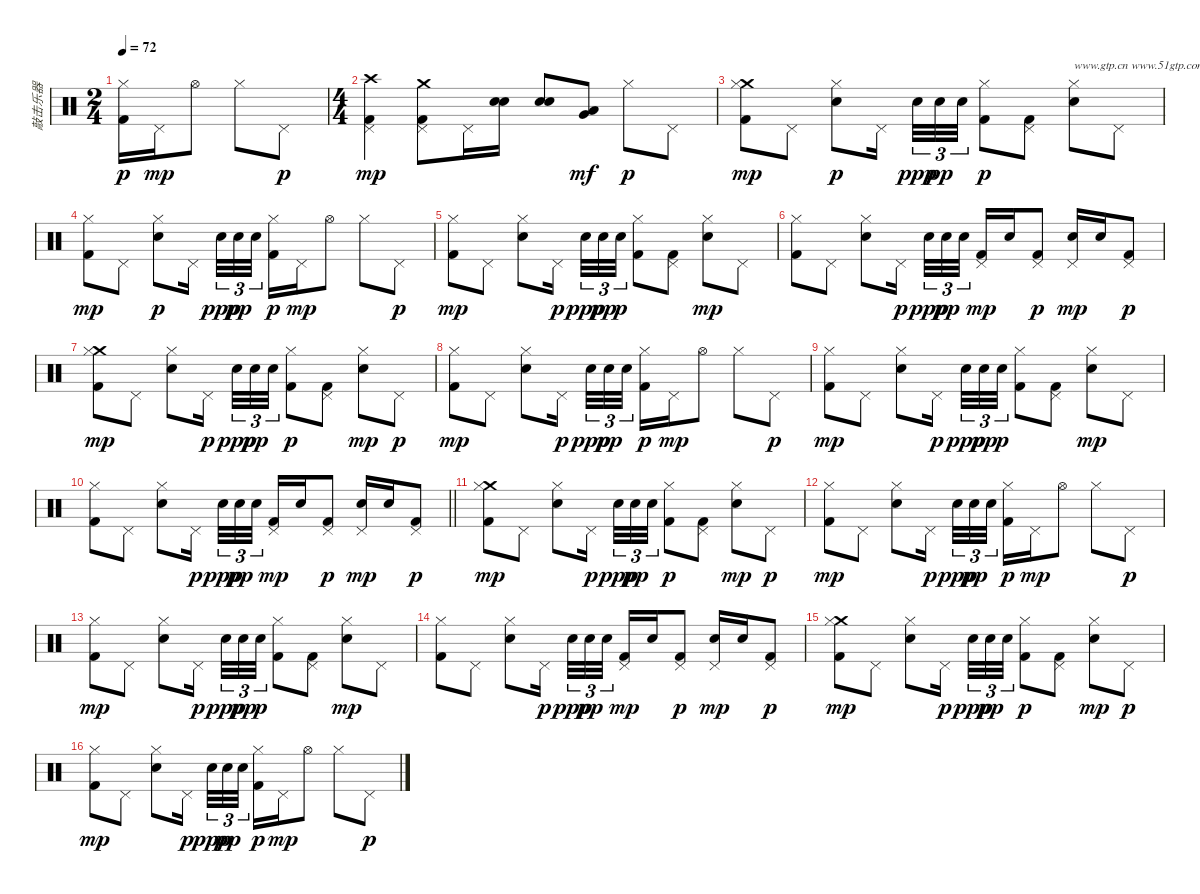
\track ("敲击乐器" "敲击乐器") {instrument percussion}
\staff {score}
\articulation defaults
\ts (2 4)
\tempo 72
\clef neutral
\ks c
("Hi-Hat (closed)" "Kick (hit) 2").16{dy p} "Pedal Hi-Hat (hit)".16{dy mp} "Hi-Hat (open)".8 "Hi-Hat (closed)".8 "Pedal Hi-Hat (hit)".8{dy p} |
\ts (4 4)
("Crash high (hit)" "Pedal Hi-Hat (hit)" "Kick (hit) 2").4{dy mp} ("Crash medium (hit)" "Pedal Hi-Hat (hit)" "Kick (hit) 2").8 "Pedal Hi-Hat (hit)".16 ("Electric Snare (hit)" "Electric Snare (hit)").16 ("Electric Snare (hit)" "Electric Snare (hit)").8 ("Low Tom (hit)" "Very Low Tom (hit)").8{dy mf} "Hi-Hat (closed)".8{dy p} "Pedal Hi-Hat (hit)".8 |
("Crash medium (hit)" "Hi-Hat (closed)" "Kick (hit) 2").8{dy mp} "Pedal Hi-Hat (hit)".8 ("Hi-Hat (closed)" "Electric Snare (hit)").8{dy p} "Pedal Hi-Hat (hit)".16{beam splitsecondary} "Electric Snare (hit)".32{tu (3 2) dy ppp} "Electric Snare (hit)".32{tu (3 2) dy pp} "Electric Snare (hit)".32{tu (3 2)} ("Hi-Hat (closed)" "Kick (hit) 2").8{dy p} ("Pedal Hi-Hat (hit)" "Kick (hit) 2").8 ("Hi-Hat (closed)" "Electric Snare (hit)").8{txt "www.gtp.cn www.51gtp.com联合为您提供优秀的GTP!"} "Pedal Hi-Hat (hit)".8 |
("Hi-Hat (closed)" "Kick (hit) 2").8{dy mp} "Pedal Hi-Hat (hit)".8 ("Hi-Hat (closed)" "Electric Snare (hit)").8{dy p} "Pedal Hi-Hat (hit)".16{beam splitsecondary} "Electric Snare (hit)".32{tu (3 2) dy ppp} "Electric Snare (hit)".32{tu (3 2) dy pp} "Electric Snare (hit)".32{tu (3 2)} ("Hi-Hat (closed)" "Kick (hit) 2").16{dy p} "Pedal Hi-Hat (hit)".16{dy mp} "Hi-Hat (open)".8 "Hi-Hat (closed)".8 "Pedal Hi-Hat (hit)".8{dy p} |
("Hi-Hat (closed)" "Kick (hit) 2").8{dy mp} "Pedal Hi-Hat (hit)".8 ("Hi-Hat (closed)" "Electric Snare (hit)").8 "Pedal Hi-Hat (hit)".16{dy p beam splitsecondary} "Electric Snare (hit)".32{tu (3 2) dy ppp} "Electric Snare (hit)".32{tu (3 2) dy pp} "Electric Snare (hit)".32{tu (3 2) dy p} ("Hi-Hat (closed)" "Kick (hit) 2").8 ("Pedal Hi-Hat (hit)" "Kick (hit) 2").8 ("Hi-Hat (closed)" "Electric Snare (hit)").8{dy mp} "Pedal Hi-Hat (hit)".8 |
("Hi-Hat (closed)" "Kick (hit) 2").8 "Pedal Hi-Hat (hit)".8 ("Hi-Hat (closed)" "Electric Snare (hit)").8 "Pedal Hi-Hat (hit)".16{dy p beam splitsecondary} "Electric Snare (hit)".32{tu (3 2) dy ppp} "Electric Snare (hit)".32{tu (3 2) dy pp} "Electric Snare (hit)".32{tu (3 2)} ("Pedal Hi-Hat (hit)" "Kick (hit) 2").16{dy mp} "Electric Snare (hit)".16 ("Pedal Hi-Hat (hit)" "Kick (hit) 2").8{dy p} ("Pedal Hi-Hat (hit)" "Electric Snare (hit)").16{dy mp} "Electric Snare (hit)".16 ("Pedal Hi-Hat (hit)" "Kick (hit) 2").8{dy p} |
("Crash medium (hit)" "Hi-Hat (closed)" "Kick (hit) 2").8{dy mp} "Pedal Hi-Hat (hit)".8 ("Hi-Hat (closed)" "Electric Snare (hit)").8 "Pedal Hi-Hat (hit)".16{dy p beam splitsecondary} "Electric Snare (hit)".32{tu (3 2) dy ppp} "Electric Snare (hit)".32{tu (3 2) dy pp} "Electric Snare (hit)".32{tu (3 2)} ("Hi-Hat (closed)" "Kick (hit) 2").8{dy p} ("Pedal Hi-Hat (hit)" "Kick (hit) 2").8 ("Hi-Hat (closed)" "Electric Snare (hit)").8{dy mp} "Pedal Hi-Hat (hit)".8{dy p} |
("Hi-Hat (closed)" "Kick (hit) 2").8{dy mp} "Pedal Hi-Hat (hit)".8 ("Hi-Hat (closed)" "Electric Snare (hit)").8 "Pedal Hi-Hat (hit)".16{dy p beam splitsecondary} "Electric Snare (hit)".32{tu (3 2) dy ppp} "Electric Snare (hit)".32{tu (3 2) dy pp} "Electric Snare (hit)".32{tu (3 2)} ("Hi-Hat (closed)" "Kick (hit) 2").16{dy p} "Pedal Hi-Hat (hit)".16{dy mp} "Hi-Hat (open)".8 "Hi-Hat (closed)".8 "Pedal Hi-Hat (hit)".8{dy p} |
("Hi-Hat (closed)" "Kick (hit) 2").8{dy mp} "Pedal Hi-Hat (hit)".8 ("Hi-Hat (closed)" "Electric Snare (hit)").8 "Pedal Hi-Hat (hit)".16{dy p beam splitsecondary} "Electric Snare (hit)".32{tu (3 2) dy ppp} "Electric Snare (hit)".32{tu (3 2) dy pp} "Electric Snare (hit)".32{tu (3 2) dy p} ("Hi-Hat (closed)" "Kick (hit) 2").8 ("Pedal Hi-Hat (hit)" "Kick (hit) 2").8 ("Hi-Hat (closed)" "Electric Snare (hit)").8{dy mp} "Pedal Hi-Hat (hit)".8 |
\barLineRight lightlight
("Hi-Hat (closed)" "Kick (hit) 2").8 "Pedal Hi-Hat (hit)".8 ("Hi-Hat (closed)" "Electric Snare (hit)").8 "Pedal Hi-Hat (hit)".16{dy p beam splitsecondary} "Electric Snare (hit)".32{tu (3 2) dy ppp} "Electric Snare (hit)".32{tu (3 2) dy pp} "Electric Snare (hit)".32{tu (3 2)} ("Pedal Hi-Hat (hit)" "Kick (hit) 2").16{dy mp} "Electric Snare (hit)".16 ("Pedal Hi-Hat (hit)" "Kick (hit) 2").8{dy p} ("Pedal Hi-Hat (hit)" "Electric Snare (hit)").16{dy mp} "Electric Snare (hit)".16 ("Pedal Hi-Hat (hit)" "Kick (hit) 2").8{dy p} |
("Crash medium (hit)" "Hi-Hat (closed)" "Kick (hit) 2").8{dy mp} "Pedal Hi-Hat (hit)".8 ("Hi-Hat (closed)" "Electric Snare (hit)").8 "Pedal Hi-Hat (hit)".16{dy p beam splitsecondary} "Electric Snare (hit)".32{tu (3 2) dy ppp} "Electric Snare (hit)".32{tu (3 2) dy pp} "Electric Snare (hit)".32{tu (3 2)} ("Hi-Hat (closed)" "Kick (hit) 2").8{dy p} ("Pedal Hi-Hat (hit)" "Kick (hit) 2").8 ("Hi-Hat (closed)" "Electric Snare (hit)").8{dy mp} "Pedal Hi-Hat (hit)".8{dy p} |
("Hi-Hat (closed)" "Kick (hit) 2").8{dy mp} "Pedal Hi-Hat (hit)".8 ("Hi-Hat (closed)" "Electric Snare (hit)").8 "Pedal Hi-Hat (hit)".16{dy p beam splitsecondary} "Electric Snare (hit)".32{tu (3 2) dy ppp} "Electric Snare (hit)".32{tu (3 2) dy pp} "Electric Snare (hit)".32{tu (3 2)} ("Hi-Hat (closed)" "Kick (hit) 2").16{dy p} "Pedal Hi-Hat (hit)".16{dy mp} "Hi-Hat (open)".8 "Hi-Hat (closed)".8 "Pedal Hi-Hat (hit)".8{dy p} |
("Hi-Hat (closed)" "Kick (hit) 2").8{dy mp} "Pedal Hi-Hat (hit)".8 ("Hi-Hat (closed)" "Electric Snare (hit)").8 "Pedal Hi-Hat (hit)".16{dy p beam splitsecondary} "Electric Snare (hit)".32{tu (3 2) dy ppp} "Electric Snare (hit)".32{tu (3 2) dy pp} "Electric Snare (hit)".32{tu (3 2) dy p} ("Hi-Hat (closed)" "Kick (hit) 2").8 ("Pedal Hi-Hat (hit)" "Kick (hit) 2").8 ("Hi-Hat (closed)" "Electric Snare (hit)").8{dy mp} "Pedal Hi-Hat (hit)".8 |
("Hi-Hat (closed)" "Kick (hit) 2").8 "Pedal Hi-Hat (hit)".8 ("Hi-Hat (closed)" "Electric Snare (hit)").8 "Pedal Hi-Hat (hit)".16{dy p beam splitsecondary} "Electric Snare (hit)".32{tu (3 2) dy ppp} "Electric Snare (hit)".32{tu (3 2) dy pp} "Electric Snare (hit)".32{tu (3 2)} ("Pedal Hi-Hat (hit)" "Kick (hit) 2").16{dy mp} "Electric Snare (hit)".16 ("Pedal Hi-Hat (hit)" "Kick (hit) 2").8{dy p} ("Pedal Hi-Hat (hit)" "Electric Snare (hit)").16{dy mp} "Electric Snare (hit)".16 ("Pedal Hi-Hat (hit)" "Kick (hit) 2").8{dy p} |
("Crash medium (hit)" "Hi-Hat (closed)" "Kick (hit) 2").8{dy mp} "Pedal Hi-Hat (hit)".8 ("Hi-Hat (closed)" "Electric Snare (hit)").8 "Pedal Hi-Hat (hit)".16{dy p beam splitsecondary} "Electric Snare (hit)".32{tu (3 2) dy ppp} "Electric Snare (hit)".32{tu (3 2) dy pp} "Electric Snare (hit)".32{tu (3 2)} ("Hi-Hat (closed)" "Kick (hit) 2").8{dy p} ("Pedal Hi-Hat (hit)" "Kick (hit) 2").8 ("Hi-Hat (closed)" "Electric Snare (hit)").8{dy mp} "Pedal Hi-Hat (hit)".8{dy p} |
("Hi-Hat (closed)" "Kick (hit) 2").8{dy mp} "Pedal Hi-Hat (hit)".8 ("Hi-Hat (closed)" "Electric Snare (hit)").8 "Pedal Hi-Hat (hit)".16{dy p beam splitsecondary} "Electric Snare (hit)".32{tu (3 2) dy ppp} "Electric Snare (hit)".32{tu (3 2) dy pp} "Electric Snare (hit)".32{tu (3 2)} ("Hi-Hat (closed)" "Kick (hit) 2").16{dy p} "Pedal Hi-Hat (hit)".16{dy mp} "Hi-Hat (open)".8 "Hi-Hat (closed)".8 "Pedal Hi-Hat (hit)".8{dy p}
